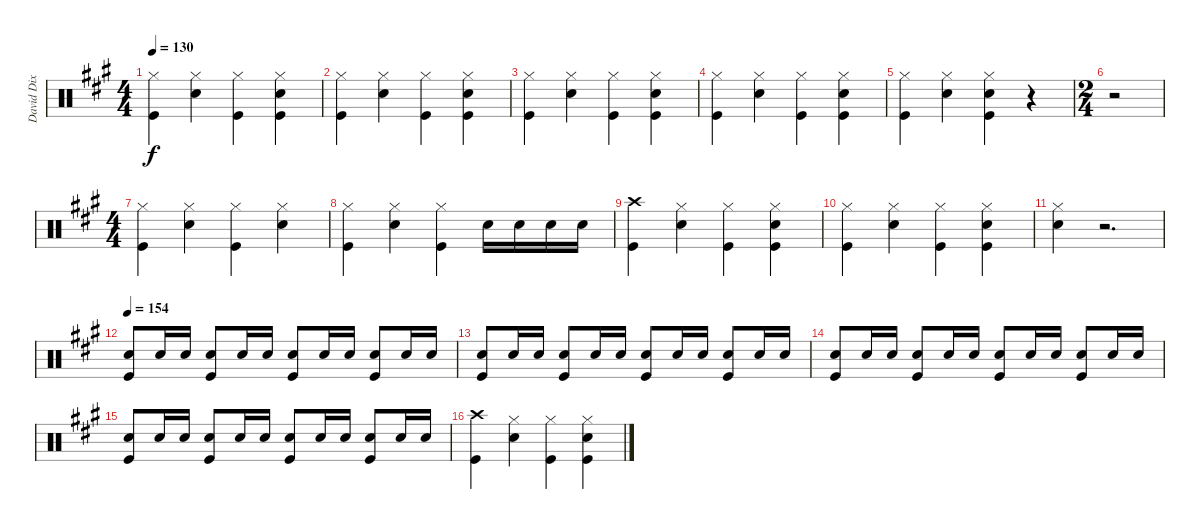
\track ("David Dix Drums" "David Dix ") {instrument percussion}
\staff {score}
\articulation defaults
\ts (4 4)
\tempo 130
\clef neutral
\ks f#minor
("Hi-Hat (closed)" "Kick (hit)").4{dy f} ("Hi-Hat (closed)" "Snare (hit) 2").4 ("Hi-Hat (closed)" "Kick (hit)").4 ("Hi-Hat (closed)" "Snare (hit) 2" "Kick (hit)").4 |
("Hi-Hat (closed)" "Kick (hit)").4 ("Hi-Hat (closed)" "Snare (hit) 2").4 ("Hi-Hat (closed)" "Kick (hit)").4 ("Hi-Hat (closed)" "Snare (hit) 2" "Kick (hit)").4 |
("Hi-Hat (closed)" "Kick (hit)").4 ("Hi-Hat (closed)" "Snare (hit) 2").4 ("Hi-Hat (closed)" "Kick (hit)").4 ("Hi-Hat (closed)" "Snare (hit) 2" "Kick (hit)").4 |
("Hi-Hat (closed)" "Kick (hit)").4 ("Hi-Hat (closed)" "Snare (hit) 2").4 ("Hi-Hat (closed)" "Kick (hit)").4 ("Hi-Hat (closed)" "Snare (hit) 2" "Kick (hit)").4 |
("Hi-Hat (closed)" "Kick (hit)").4 ("Hi-Hat (closed)" "Snare (hit) 2").4 ("Hi-Hat (closed)" "Snare (hit) 2" "Kick (hit)").4 r.4 |
\ts (2 4)
r.2 |
\ts (4 4)
("Hi-Hat (closed)" "Kick (hit)").4 ("Hi-Hat (closed)" "Snare (hit) 2").4 ("Hi-Hat (closed)" "Kick (hit)").4 ("Hi-Hat (closed)" "Snare (hit) 2").4 |
("Hi-Hat (closed)" "Kick (hit)").4 ("Hi-Hat (closed)" "Snare (hit) 2").4 ("Hi-Hat (closed)" "Kick (hit)").4 "Snare (hit) 2".16 "Snare (hit) 2".16 "Snare (hit) 2".16 "Snare (hit) 2".16 |
("Crash high (hit)" "Kick (hit)").4 ("Hi-Hat (closed)" "Snare (hit) 2").4 ("Hi-Hat (closed)" "Kick (hit)").4 ("Hi-Hat (closed)" "Snare (hit) 2" "Kick (hit)").4 |
("Hi-Hat (closed)" "Kick (hit)").4 ("Hi-Hat (closed)" "Snare (hit) 2").4 ("Hi-Hat (closed)" "Kick (hit)").4 ("Hi-Hat (closed)" "Snare (hit) 2" "Kick (hit)").4 |
("Hi-Hat (closed)" "Snare (hit) 2").4 r.2{d} |
\tempo 154
("Snare (hit) 2" "Kick (hit)").8 "Snare (hit) 2".16 "Snare (hit) 2".16 ("Snare (hit) 2" "Kick (hit)").8 "Snare (hit) 2".16 "Snare (hit) 2".16 ("Snare (hit) 2" "Kick (hit)").8 "Snare (hit) 2".16 "Snare (hit) 2".16 ("Snare (hit) 2" "Kick (hit)").8 "Snare (hit) 2".16 "Snare (hit) 2".16 |
("Snare (hit) 2" "Kick (hit)").8 "Snare (hit) 2".16 "Snare (hit) 2".16 ("Snare (hit) 2" "Kick (hit)").8 "Snare (hit) 2".16 "Snare (hit) 2".16 ("Snare (hit) 2" "Kick (hit)").8 "Snare (hit) 2".16 "Snare (hit) 2".16 ("Snare (hit) 2" "Kick (hit)").8 "Snare (hit) 2".16 "Snare (hit) 2".16 |
("Snare (hit) 2" "Kick (hit)").8 "Snare (hit) 2".16 "Snare (hit) 2".16 ("Snare (hit) 2" "Kick (hit)").8 "Snare (hit) 2".16 "Snare (hit) 2".16 ("Snare (hit) 2" "Kick (hit)").8 "Snare (hit) 2".16 "Snare (hit) 2".16 ("Snare (hit) 2" "Kick (hit)").8 "Snare (hit) 2".16 "Snare (hit) 2".16 |
("Snare (hit) 2" "Kick (hit)").8 "Snare (hit) 2".16 "Snare (hit) 2".16 ("Snare (hit) 2" "Kick (hit)").8 "Snare (hit) 2".16 "Snare (hit) 2".16 ("Snare (hit) 2" "Kick (hit)").8 "Snare (hit) 2".16 "Snare (hit) 2".16 ("Snare (hit) 2" "Kick (hit)").8 "Snare (hit) 2".16 "Snare (hit) 2".16 |
("Crash high (hit)" "Kick (hit)").4 ("Hi-Hat (closed)" "Snare (hit) 2").4 ("Hi-Hat (closed)" "Kick (hit)").4 ("Hi-Hat (closed)" "Snare (hit) 2" "Kick (hit)").4
